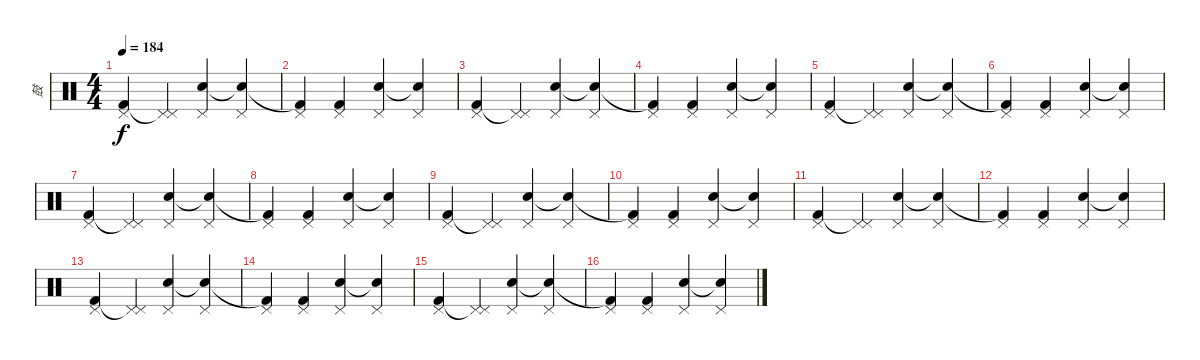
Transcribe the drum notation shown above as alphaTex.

\track ("鼓" "鼓") {instrument percussion}
\staff {score}
\articulation defaults
\ts (4 4)
\tempo 184
\clef neutral
\ks c
("Pedal Hi-Hat (hit)" "Kick (hit) 2").4{dy f} ("Pedal Hi-Hat (hit)" "Pedal Hi-Hat (hit)"{t}).4 ("Pedal Hi-Hat (hit)" "Electric Snare (hit)").4 ("Pedal Hi-Hat (hit)" "Snare (hit)"{t}).4 |
("Pedal Hi-Hat (hit)" "Kick (hit) 2"{t}).4 ("Pedal Hi-Hat (hit)" "Kick (hit) 2").4 ("Pedal Hi-Hat (hit)" "Electric Snare (hit)").4 ("Pedal Hi-Hat (hit)" "Snare (hit)"{t}).4 |
("Pedal Hi-Hat (hit)" "Kick (hit) 2").4 ("Pedal Hi-Hat (hit)" "Pedal Hi-Hat (hit)"{t}).4 ("Pedal Hi-Hat (hit)" "Electric Snare (hit)").4 ("Pedal Hi-Hat (hit)" "Snare (hit)"{t}).4 |
("Pedal Hi-Hat (hit)" "Kick (hit) 2"{t}).4 ("Pedal Hi-Hat (hit)" "Kick (hit) 2").4 ("Pedal Hi-Hat (hit)" "Electric Snare (hit)").4 ("Pedal Hi-Hat (hit)" "Snare (hit)"{t}).4 |
("Pedal Hi-Hat (hit)" "Kick (hit) 2").4 ("Pedal Hi-Hat (hit)" "Pedal Hi-Hat (hit)"{t}).4 ("Pedal Hi-Hat (hit)" "Electric Snare (hit)").4 ("Pedal Hi-Hat (hit)" "Snare (hit)"{t}).4 |
("Pedal Hi-Hat (hit)" "Kick (hit) 2"{t}).4 ("Pedal Hi-Hat (hit)" "Kick (hit) 2").4 ("Pedal Hi-Hat (hit)" "Electric Snare (hit)").4 ("Pedal Hi-Hat (hit)" "Snare (hit)"{t}).4 |
("Pedal Hi-Hat (hit)" "Kick (hit) 2").4 ("Pedal Hi-Hat (hit)" "Pedal Hi-Hat (hit)"{t}).4 ("Pedal Hi-Hat (hit)" "Electric Snare (hit)").4 ("Pedal Hi-Hat (hit)" "Snare (hit)"{t}).4 |
("Pedal Hi-Hat (hit)" "Kick (hit) 2"{t}).4 ("Pedal Hi-Hat (hit)" "Kick (hit) 2").4 ("Pedal Hi-Hat (hit)" "Electric Snare (hit)").4 ("Pedal Hi-Hat (hit)" "Snare (hit)"{t}).4 |
("Pedal Hi-Hat (hit)" "Kick (hit) 2").4 ("Pedal Hi-Hat (hit)" "Pedal Hi-Hat (hit)"{t}).4 ("Pedal Hi-Hat (hit)" "Electric Snare (hit)").4 ("Pedal Hi-Hat (hit)" "Snare (hit)"{t}).4 |
("Pedal Hi-Hat (hit)" "Kick (hit) 2"{t}).4 ("Pedal Hi-Hat (hit)" "Kick (hit) 2").4 ("Pedal Hi-Hat (hit)" "Electric Snare (hit)").4 ("Pedal Hi-Hat (hit)" "Snare (hit)"{t}).4 |
("Pedal Hi-Hat (hit)" "Kick (hit) 2").4 ("Pedal Hi-Hat (hit)" "Pedal Hi-Hat (hit)"{t}).4 ("Pedal Hi-Hat (hit)" "Electric Snare (hit)").4 ("Pedal Hi-Hat (hit)" "Snare (hit)"{t}).4 |
("Pedal Hi-Hat (hit)" "Kick (hit) 2"{t}).4 ("Pedal Hi-Hat (hit)" "Kick (hit) 2").4 ("Pedal Hi-Hat (hit)" "Electric Snare (hit)").4 ("Pedal Hi-Hat (hit)" "Snare (hit)"{t}).4 |
("Pedal Hi-Hat (hit)" "Kick (hit) 2").4 ("Pedal Hi-Hat (hit)" "Pedal Hi-Hat (hit)"{t}).4 ("Pedal Hi-Hat (hit)" "Electric Snare (hit)").4 ("Pedal Hi-Hat (hit)" "Snare (hit)"{t}).4 |
("Pedal Hi-Hat (hit)" "Kick (hit) 2"{t}).4 ("Pedal Hi-Hat (hit)" "Kick (hit) 2").4 ("Pedal Hi-Hat (hit)" "Electric Snare (hit)").4 ("Pedal Hi-Hat (hit)" "Snare (hit)"{t}).4 |
("Pedal Hi-Hat (hit)" "Kick (hit) 2").4 ("Pedal Hi-Hat (hit)" "Pedal Hi-Hat (hit)"{t}).4 ("Pedal Hi-Hat (hit)" "Electric Snare (hit)").4 ("Pedal Hi-Hat (hit)" "Snare (hit)"{t}).4 |
("Pedal Hi-Hat (hit)" "Kick (hit) 2"{t}).4 ("Pedal Hi-Hat (hit)" "Kick (hit) 2").4 ("Pedal Hi-Hat (hit)" "Electric Snare (hit)").4 ("Pedal Hi-Hat (hit)" "Snare (hit)"{t}).4
